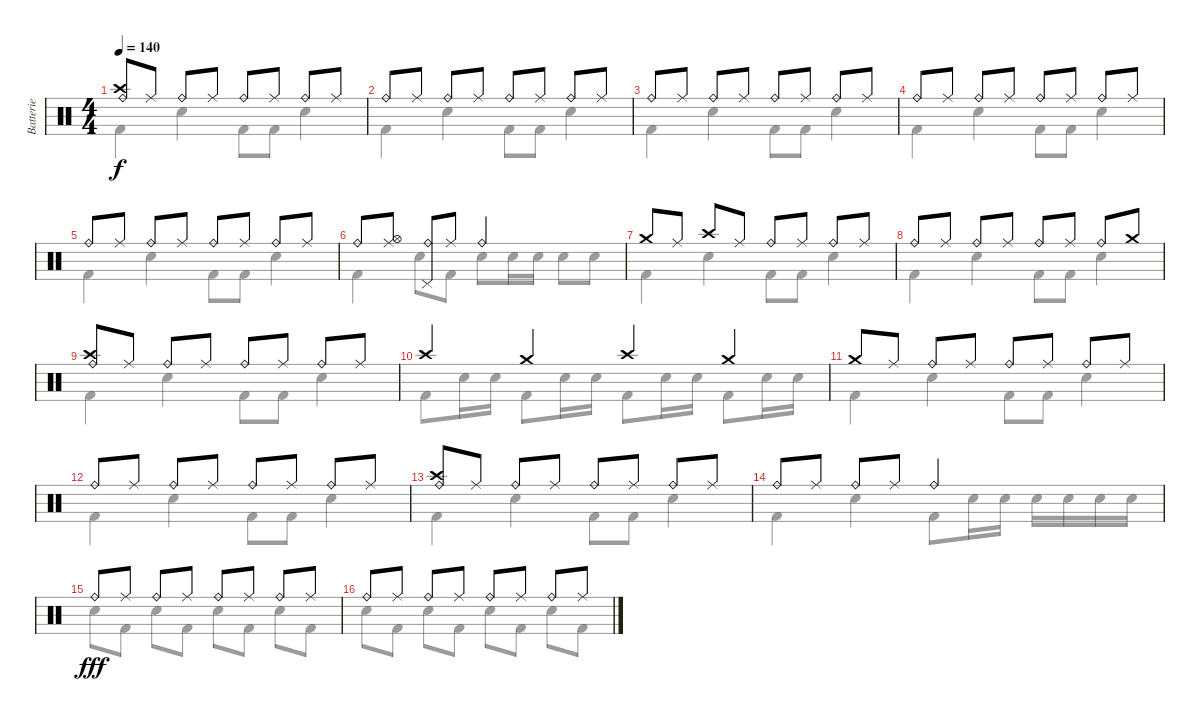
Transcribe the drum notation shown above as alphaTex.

\track ("Batterie" "Batterie") {instrument percussion}
\staff {score}
\articulation defaults
\voice
\ts (4 4)
\tempo 140
\clef neutral
\ks c
("Crash high (hit)" "Ride (bell)").8{dy f} "Ride (middle)".8 "Ride (bell)".8 "Ride (middle)".8 "Ride (bell)".8 "Ride (middle)".8 "Ride (bell)".8 "Ride (middle)".8 |
"Ride (bell)".8 "Ride (middle)".8 "Ride (bell)".8 "Ride (middle)".8 "Ride (bell)".8 "Ride (middle)".8 "Ride (bell)".8 "Ride (middle)".8 |
"Ride (bell)".8 "Ride (middle)".8 "Ride (bell)".8 "Ride (middle)".8 "Ride (bell)".8 "Ride (middle)".8 "Ride (bell)".8 "Ride (middle)".8 |
"Ride (bell)".8 "Ride (middle)".8 "Ride (bell)".8 "Ride (middle)".8 "Ride (bell)".8 "Ride (middle)".8 "Ride (bell)".8 "Ride (middle)".8 |
"Ride (bell)".8 "Ride (middle)".8 "Ride (bell)".8 "Ride (middle)".8 "Ride (bell)".8 "Ride (middle)".8 "Ride (bell)".8 "Ride (middle)".8 |
"Ride (bell)".8 ("Ride (middle)" "Hi-Hat (open)").8 ("Ride (bell)" "Pedal Hi-Hat (hit)").8 "Ride (middle)".8 "Ride (bell)".2 |
"Crash medium (hit)".8 "Ride (middle)".8 "Crash high (hit)".8 "Ride (middle)".8 "Ride (bell)".8 "Ride (middle)".8 "Ride (bell)".8 "Ride (middle)".8 |
"Ride (bell)".8 "Ride (middle)".8 "Ride (bell)".8 "Ride (middle)".8 "Ride (bell)".8 "Ride (middle)".8 "Ride (bell)".8 "Crash medium (hit)".8 |
("Crash high (hit)" "Ride (bell)").8 "Ride (middle)".8 "Ride (bell)".8 "Ride (middle)".8 "Ride (bell)".8 "Ride (middle)".8 "Ride (bell)".8 "Ride (middle)".8 |
"Crash high (hit)".4 "Crash medium (hit)".4 "Crash high (hit)".4 "Crash medium (hit)".4 |
"Crash medium (hit)".8 "Ride (middle)".8 "Ride (bell)".8 "Ride (middle)".8 "Ride (bell)".8 "Ride (middle)".8 "Ride (bell)".8 "Ride (middle)".8 |
"Ride (bell)".8 "Ride (middle)".8 "Ride (bell)".8 "Ride (middle)".8 "Ride (bell)".8 "Ride (middle)".8 "Ride (bell)".8 "Ride (middle)".8 |
("Crash high (hit)" "Ride (bell)").8 "Ride (middle)".8 "Ride (bell)".8 "Ride (middle)".8 "Ride (bell)".8 "Ride (middle)".8 "Ride (bell)".8 "Ride (middle)".8 |
"Ride (bell)".8 "Ride (middle)".8 "Ride (bell)".8 "Ride (middle)".8 "Ride (bell)".2 |
"Ride (bell)".8{dy fff} "Ride (middle)".8 "Ride (bell)".8 "Ride (middle)".8 "Ride (bell)".8 "Ride (middle)".8 "Ride (bell)".8 "Ride (middle)".8 |
"Ride (bell)".8 "Ride (middle)".8 "Ride (bell)".8 "Ride (middle)".8 "Ride (bell)".8 "Ride (middle)".8 "Ride (bell)".8 "Ride (middle)".8
\voice
\clef neutral
\ottava regular
\simile none
\ks c "Kick (hit) 2".4{dy f} "Electric Snare (hit)".4 "Kick (hit) 2".8 "Kick (hit) 2".8 "Electric Snare (hit)".4
|
"Kick (hit) 2".4 "Electric Snare (hit)".4 "Kick (hit) 2".8 "Kick (hit) 2".8 "Electric Snare (hit)".4 |
"Kick (hit) 2".4 "Electric Snare (hit)".4 "Kick (hit) 2".8 "Kick (hit) 2".8 "Electric Snare (hit)".4 |
"Kick (hit) 2".4 "Electric Snare (hit)".4 "Kick (hit) 2".8 "Kick (hit) 2".8 "Electric Snare (hit)".4 |
"Kick (hit) 2".4 "Electric Snare (hit)".4 "Kick (hit) 2".8 "Kick (hit) 2".8 "Electric Snare (hit)".4 |
"Kick (hit) 2".4 "Electric Snare (hit)".8 "Kick (hit) 2".8 "Electric Snare (hit)".8 "Electric Snare (hit)".16 "Electric Snare (hit)".16 "Electric Snare (hit)".8 "Electric Snare (hit)".8 |
"Kick (hit) 2".4 "Electric Snare (hit)".4 "Kick (hit) 2".8 "Kick (hit) 2".8 "Electric Snare (hit)".4 |
"Kick (hit) 2".4 "Electric Snare (hit)".4 "Kick (hit) 2".8 "Kick (hit) 2".8 "Electric Snare (hit)".4 |
"Kick (hit) 2".4 "Electric Snare (hit)".4 "Kick (hit) 2".8 "Kick (hit) 2".8 "Electric Snare (hit)".4 |
"Kick (hit) 2".8 "Electric Snare (hit)".16 "Electric Snare (hit)".16 "Kick (hit) 2".8 "Electric Snare (hit)".16 "Electric Snare (hit)".16 "Kick (hit) 2".8 "Electric Snare (hit)".16 "Electric Snare (hit)".16 "Kick (hit) 2".8 "Electric Snare (hit)".16 "Electric Snare (hit)".16 |
"Kick (hit) 2".4 "Electric Snare (hit)".4 "Kick (hit) 2".8 "Kick (hit) 2".8 "Electric Snare (hit)".4 |
"Kick (hit) 2".4 "Electric Snare (hit)".4 "Kick (hit) 2".8 "Kick (hit) 2".8 "Electric Snare (hit)".4 |
"Kick (hit) 2".4 "Electric Snare (hit)".4 "Kick (hit) 2".8 "Kick (hit) 2".8 "Electric Snare (hit)".4 |
"Kick (hit) 2".4 "Electric Snare (hit)".4 "Kick (hit) 2".8 "Electric Snare (hit)".16 "Electric Snare (hit)".16 "Electric Snare (hit)".16 "Electric Snare (hit)".16 "Electric Snare (hit)".16 "Electric Snare (hit)".16 |
"Electric Snare (hit)".8 "Kick (hit) 2".8 "Electric Snare (hit)".8 "Kick (hit) 2".8 "Electric Snare (hit)".8 "Kick (hit) 2".8 "Electric Snare (hit)".8 "Kick (hit) 2".8 |
"Electric Snare (hit)".8 "Kick (hit) 2".8 "Electric Snare (hit)".8 "Kick (hit) 2".8 "Electric Snare (hit)".8 "Kick (hit) 2".8 "Electric Snare (hit)".8 "Kick (hit) 2".8
